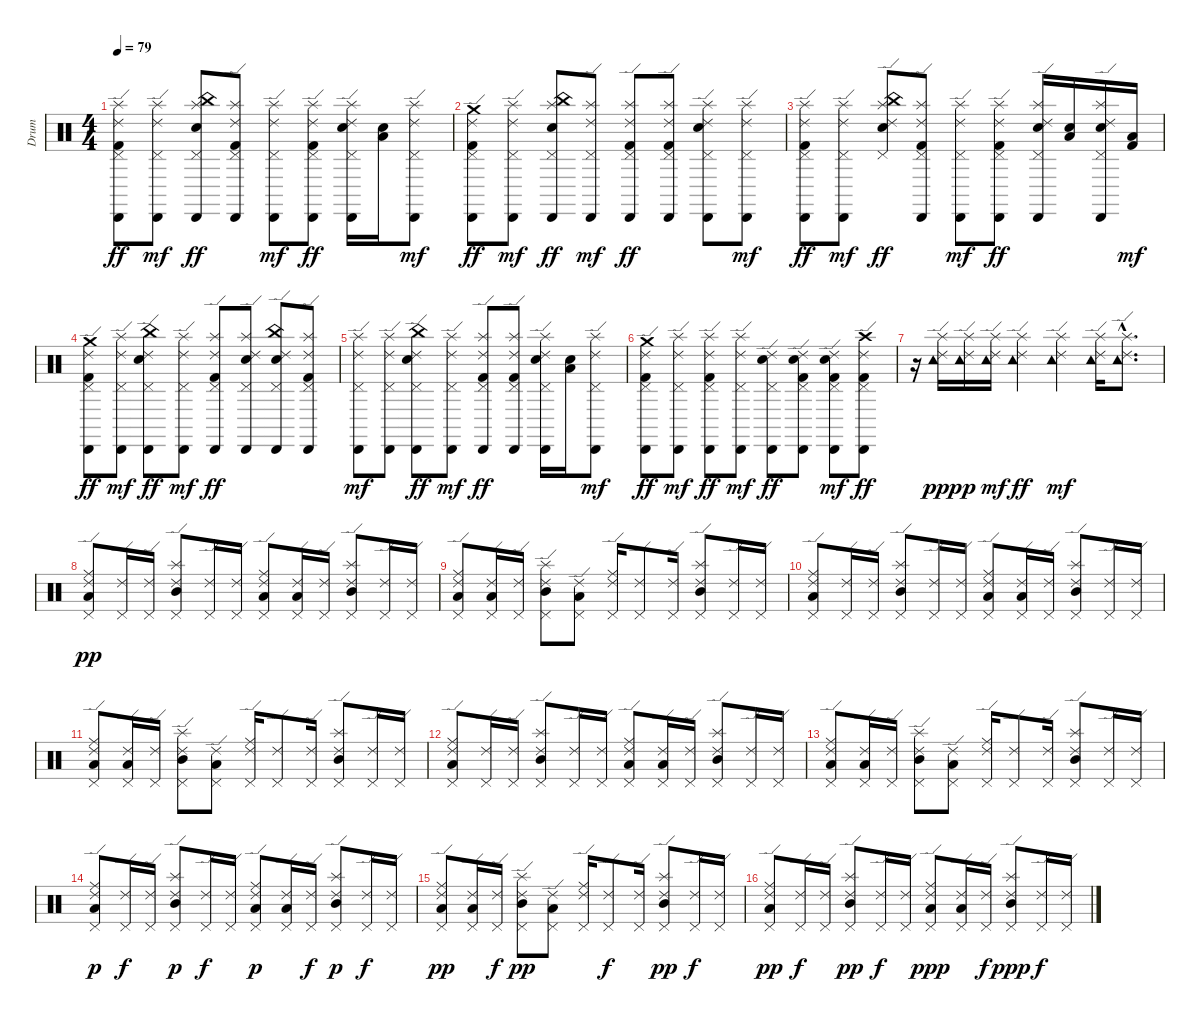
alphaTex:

\track ("Drum" "Drum") {instrument percussion}
\staff {score}
\articulation defaults
\ts (4 4)
\tempo 79
\clef neutral
\ks c
("Ride (edge) 2" "Cabasa (hit)" "Pedal Hi-Hat (hit)" "Splash (hit)" "Kick (hit) 2").8{dy ff} ("Ride (edge) 2" "Cabasa (hit)" "Pedal Hi-Hat (hit)" "Splash (hit)").8{dy mf} ("Splash (hit)" "Cabasa (hit)" "Pedal Hi-Hat (hit)" "China (hit)" "Snare (hit) 2").8{dy ff} ("Ride (edge) 2" "Cabasa (hit)" "Pedal Hi-Hat (hit)" "Splash (hit)" "Kick (hit) 2").8 ("Ride (edge) 2" "Cabasa (hit)" "Pedal Hi-Hat (hit)" "Splash (hit)").8{dy mf} ("Ride (edge) 2" "Cabasa (hit)" "Pedal Hi-Hat (hit)" "Splash (hit)" "Kick (hit) 2").8{dy ff} ("Ride (edge) 2" "Cabasa (hit)" "Pedal Hi-Hat (hit)" "Splash (hit)" "Snare (hit) 2").16 ("Low Tom (hit)" "Snare (hit) 2").16 ("Ride (edge) 2" "Cabasa (hit)" "Pedal Hi-Hat (hit)" "Splash (hit)").8{dy mf} |
("Ride (edge) 2" "Cabasa (hit)" "Pedal Hi-Hat (hit)" "Crash medium (hit)" "Kick (hit) 2").8{dy ff} ("Ride (edge) 2" "Cabasa (hit)" "Pedal Hi-Hat (hit)" "Splash (hit)").8{dy mf} ("Splash (hit)" "Cabasa (hit)" "Pedal Hi-Hat (hit)" "China (hit)" "Snare (hit) 2").8{dy ff} ("Ride (edge) 2" "Cabasa (hit)" "Pedal Hi-Hat (hit)" "Splash (hit)").8{dy mf} ("Ride (edge) 2" "Cabasa (hit)" "Pedal Hi-Hat (hit)" "Splash (hit)" "Kick (hit) 2").8{dy ff} ("Ride (edge) 2" "Cabasa (hit)" "Pedal Hi-Hat (hit)" "Splash (hit)" "Kick (hit) 2").8 ("Ride (edge) 2" "Cabasa (hit)" "Pedal Hi-Hat (hit)" "Splash (hit)" "Snare (hit) 2").8 ("Ride (edge) 2" "Cabasa (hit)" "Pedal Hi-Hat (hit)" "Splash (hit)").8{dy mf} |
("Ride (edge) 2" "Cabasa (hit)" "Pedal Hi-Hat (hit)" "Splash (hit)" "Kick (hit) 2").8{dy ff} ("Ride (edge) 2" "Cabasa (hit)" "Pedal Hi-Hat (hit)" "Splash (hit)").8{dy mf} ("Ride (edge) 2" "China (hit)" "Pedal Hi-Hat (hit)" "Splash (hit)" "Snare (hit) 2").8{dy ff} ("Ride (edge) 2" "Cabasa (hit)" "Pedal Hi-Hat (hit)" "Splash (hit)" "Kick (hit) 2").8 ("Ride (edge) 2" "Cabasa (hit)" "Pedal Hi-Hat (hit)" "Splash (hit)").8{dy mf} ("Ride (edge) 2" "Cabasa (hit)" "Pedal Hi-Hat (hit)" "Splash (hit)" "Kick (hit) 2").8{dy ff} ("Ride (edge) 2" "Cabasa (hit)" "Pedal Hi-Hat (hit)" "Splash (hit)" "Snare (hit) 2").16 ("Low Tom (hit)" "Snare (hit) 2").16 ("Ride (edge) 2" "Cabasa (hit)" "Pedal Hi-Hat (hit)" "Splash (hit)" "Snare (hit) 2").16 ("Low Floor Tom (hit)" "Kick (hit) 2").16{dy mf} |
("Ride (edge) 2" "Cabasa (hit)" "Pedal Hi-Hat (hit)" "Crash medium (hit)" "Kick (hit) 2").8{dy ff} ("Ride (edge) 2" "Cabasa (hit)" "Pedal Hi-Hat (hit)" "Splash (hit)").8{dy mf} ("Ride (edge) 2" "Cabasa (hit)" "Pedal Hi-Hat (hit)" "China (hit)" "Snare (hit) 2").8{dy ff} ("Ride (edge) 2" "Cabasa (hit)" "Pedal Hi-Hat (hit)" "Splash (hit)").8{dy mf} ("Ride (edge) 2" "Cabasa (hit)" "Pedal Hi-Hat (hit)" "Splash (hit)" "Kick (hit) 2").8{dy ff} ("Ride (edge) 2" "Cabasa (hit)" "Pedal Hi-Hat (hit)" "Splash (hit)" "Snare (hit) 2").8 ("Ride (edge) 2" "Cabasa (hit)" "Pedal Hi-Hat (hit)" "China (hit)" "Snare (hit) 2").8 ("Ride (edge) 2" "Cabasa (hit)" "Pedal Hi-Hat (hit)" "Splash (hit)" "Kick (hit) 2").8 |
("Ride (edge) 2" "Cabasa (hit)" "Pedal Hi-Hat (hit)" "Splash (hit)").8{dy mf} ("Ride (edge) 2" "Cabasa (hit)" "Pedal Hi-Hat (hit)" "Splash (hit)").8 ("Ride (edge) 2" "Cabasa (hit)" "Pedal Hi-Hat (hit)" "China (hit)" "Snare (hit) 2").8{dy ff} ("Ride (edge) 2" "Cabasa (hit)" "Pedal Hi-Hat (hit)" "Splash (hit)").8{dy mf} ("Ride (edge) 2" "Cabasa (hit)" "Pedal Hi-Hat (hit)" "Splash (hit)" "Kick (hit) 2").8{dy ff} ("Splash (hit)" "Cabasa (hit)" "Pedal Hi-Hat (hit)" "Ride (edge) 2" "Kick (hit) 2").8 ("Ride (edge) 2" "Cabasa (hit)" "Pedal Hi-Hat (hit)" "Splash (hit)" "Snare (hit) 2").16 ("Low Tom (hit)" "Snare (hit) 2").16 ("Ride (edge) 2" "Cabasa (hit)" "Pedal Hi-Hat (hit)" "Splash (hit)").8{dy mf} |
("Ride (edge) 2" "Cabasa (hit)" "Pedal Hi-Hat (hit)" "Crash medium (hit)" "Kick (hit) 2").8{dy ff} ("Ride (edge) 2" "Cabasa (hit)" "Pedal Hi-Hat (hit)" "Splash (hit)").8{dy mf} ("Ride (edge) 2" "Cabasa (hit)" "Pedal Hi-Hat (hit)" "Splash (hit)" "Kick (hit) 2").8{dy ff} ("Ride (edge) 2" "Cabasa (hit)" "Pedal Hi-Hat (hit)" "Splash (hit)").8{dy mf} ("Ride (edge) 2" "Cabasa (hit)" "Pedal Hi-Hat (hit)" "Snare (hit) 2").8{dy ff} ("Ride (edge) 2" "Cabasa (hit)" "Pedal Hi-Hat (hit)" "Snare (hit) 2" "Kick (hit) 2").8 ("Ride (edge) 2" "Cabasa (hit)" "Pedal Hi-Hat (hit)" "Snare (hit) 2" "Kick (hit) 2").8{dy mf} ("Ride (edge) 2" "Cabasa (hit)" "Pedal Hi-Hat (hit)" "Crash high (hit)" "Kick (hit) 2").8{dy ff} |
r.16 ("Ride (edge) 2" "Splash (hit)" "Tambourine (hit)").16{dy ppp} ("Ride (edge) 2" "Splash (hit)" "Tambourine (hit)").16{dy p} ("Ride (edge) 2" "Splash (hit)" "Tambourine (hit)").16{dy mf} ("Ride (edge) 2" "Splash (hit)" "Tambourine (hit)").4{dy ff} ("Ride (edge) 2" "Splash (hit)" "Tambourine (hit)").4{dy mf} ("Ride (edge) 2" "Splash (hit)" "Tambourine (hit)").16 ("Ride (edge) 2"{hac} "Splash (hit)"{hac} "Tambourine (hit)"{hac}).8{d} |
("Ride (edge) 2" "Pedal Hi-Hat (hit)" "Ride (middle)" "Low Tom (hit)").8{dy pp} ("Ride (edge) 2" "Pedal Hi-Hat (hit)").16 ("Ride (edge) 2" "Pedal Hi-Hat (hit)").16 ("Ride (edge) 2" "Pedal Hi-Hat (hit)" "Splash (hit)" "Mid Tom (hit)").8 ("Ride (edge) 2" "Pedal Hi-Hat (hit)").16 ("Ride (edge) 2" "Pedal Hi-Hat (hit)").16 ("Ride (edge) 2" "Pedal Hi-Hat (hit)" "Ride (middle)" "Low Tom (hit)").8 ("Ride (edge) 2" "Pedal Hi-Hat (hit)" "Low Tom (hit)").16 ("Ride (edge) 2" "Pedal Hi-Hat (hit)").16 ("Ride (edge) 2" "Pedal Hi-Hat (hit)" "Splash (hit)" "Mid Tom (hit)").8 ("Ride (edge) 2" "Pedal Hi-Hat (hit)").16 ("Ride (edge) 2" "Pedal Hi-Hat (hit)").16 |
("Ride (edge) 2" "Pedal Hi-Hat (hit)" "Ride (middle)" "Low Tom (hit)").8 ("Ride (edge) 2" "Pedal Hi-Hat (hit)" "Low Tom (hit)").16 ("Ride (edge) 2" "Pedal Hi-Hat (hit)").16 ("Ride (edge) 2" "Pedal Hi-Hat (hit)" "Splash (hit)" "Mid Tom (hit)").8 ("Ride (edge) 2" "Pedal Hi-Hat (hit)" "Low Tom (hit)").8 ("Ride (edge) 2" "Pedal Hi-Hat (hit)" "Ride (middle)").16 ("Ride (edge) 2" "Pedal Hi-Hat (hit)").8 ("Ride (edge) 2" "Pedal Hi-Hat (hit)").16 ("Ride (edge) 2" "Pedal Hi-Hat (hit)" "Splash (hit)" "Mid Tom (hit)").8 ("Ride (edge) 2" "Pedal Hi-Hat (hit)").16 ("Ride (edge) 2" "Pedal Hi-Hat (hit)").16 |
("Ride (edge) 2" "Pedal Hi-Hat (hit)" "Ride (middle)" "Low Tom (hit)").8 ("Ride (edge) 2" "Pedal Hi-Hat (hit)").16 ("Ride (edge) 2" "Pedal Hi-Hat (hit)").16 ("Ride (edge) 2" "Pedal Hi-Hat (hit)" "Splash (hit)" "Mid Tom (hit)").8 ("Ride (edge) 2" "Pedal Hi-Hat (hit)").16 ("Ride (edge) 2" "Pedal Hi-Hat (hit)").16 ("Ride (edge) 2" "Pedal Hi-Hat (hit)" "Ride (middle)" "Low Tom (hit)").8 ("Ride (edge) 2" "Pedal Hi-Hat (hit)" "Low Tom (hit)").16 ("Ride (edge) 2" "Pedal Hi-Hat (hit)").16 ("Ride (edge) 2" "Pedal Hi-Hat (hit)" "Splash (hit)" "Mid Tom (hit)").8 ("Ride (edge) 2" "Pedal Hi-Hat (hit)").16 ("Ride (edge) 2" "Pedal Hi-Hat (hit)").16 |
("Ride (edge) 2" "Pedal Hi-Hat (hit)" "Ride (middle)" "Low Tom (hit)").8 ("Ride (edge) 2" "Pedal Hi-Hat (hit)" "Low Tom (hit)").16 ("Ride (edge) 2" "Pedal Hi-Hat (hit)").16 ("Ride (edge) 2" "Pedal Hi-Hat (hit)" "Splash (hit)" "Mid Tom (hit)").8 ("Ride (edge) 2" "Pedal Hi-Hat (hit)" "Low Tom (hit)").8 ("Ride (edge) 2" "Pedal Hi-Hat (hit)" "Ride (middle)").16 ("Ride (edge) 2" "Pedal Hi-Hat (hit)").8 ("Ride (edge) 2" "Pedal Hi-Hat (hit)").16 ("Ride (edge) 2" "Pedal Hi-Hat (hit)" "Splash (hit)" "Mid Tom (hit)").8 ("Ride (edge) 2" "Pedal Hi-Hat (hit)").16 ("Ride (edge) 2" "Pedal Hi-Hat (hit)").16 |
("Ride (middle)" "Ride (edge) 2" "Pedal Hi-Hat (hit)" "Low Tom (hit)").8 ("Ride (edge) 2" "Pedal Hi-Hat (hit)").16 ("Ride (edge) 2" "Pedal Hi-Hat (hit)").16 ("Ride (edge) 2" "Pedal Hi-Hat (hit)" "Splash (hit)" "Mid Tom (hit)").8 ("Ride (edge) 2" "Pedal Hi-Hat (hit)").16 ("Ride (edge) 2" "Pedal Hi-Hat (hit)").16 ("Ride (edge) 2" "Pedal Hi-Hat (hit)" "Ride (middle)" "Low Tom (hit)").8 ("Ride (edge) 2" "Pedal Hi-Hat (hit)" "Low Tom (hit)").16 ("Ride (edge) 2" "Pedal Hi-Hat (hit)").16 ("Ride (edge) 2" "Pedal Hi-Hat (hit)" "Splash (hit)" "Mid Tom (hit)").8 ("Ride (edge) 2" "Pedal Hi-Hat (hit)").16 ("Ride (edge) 2" "Pedal Hi-Hat (hit)").16 |
("Ride (edge) 2" "Pedal Hi-Hat (hit)" "Ride (middle)" "Low Tom (hit)").8 ("Ride (edge) 2" "Pedal Hi-Hat (hit)" "Low Tom (hit)").16 ("Ride (edge) 2" "Pedal Hi-Hat (hit)").16 ("Ride (edge) 2" "Pedal Hi-Hat (hit)" "Splash (hit)" "Mid Tom (hit)").8 ("Ride (edge) 2" "Pedal Hi-Hat (hit)" "Low Tom (hit)").8 ("Ride (edge) 2" "Pedal Hi-Hat (hit)" "Ride (middle)").16 ("Ride (edge) 2" "Pedal Hi-Hat (hit)").8 ("Ride (edge) 2" "Pedal Hi-Hat (hit)").16 ("Ride (edge) 2" "Pedal Hi-Hat (hit)" "Splash (hit)" "Mid Tom (hit)").8 ("Ride (edge) 2" "Pedal Hi-Hat (hit)").16 ("Ride (edge) 2" "Pedal Hi-Hat (hit)").16 |
("Ride (edge) 2" "Pedal Hi-Hat (hit)" "Ride (middle)" "Low Tom (hit)").8{dy p} ("Ride (edge) 2" "Pedal Hi-Hat (hit)").16{dy f} ("Ride (edge) 2" "Pedal Hi-Hat (hit)").16 ("Ride (edge) 2" "Pedal Hi-Hat (hit)" "Splash (hit)" "Mid Tom (hit)").8{dy p} ("Ride (edge) 2" "Pedal Hi-Hat (hit)").16{dy f} ("Ride (edge) 2" "Pedal Hi-Hat (hit)").16 ("Ride (edge) 2" "Pedal Hi-Hat (hit)" "Ride (middle)" "Low Tom (hit)").8{dy p} ("Ride (edge) 2" "Pedal Hi-Hat (hit)" "Low Tom (hit)").16 ("Ride (edge) 2" "Pedal Hi-Hat (hit)").16{dy f} ("Ride (edge) 2" "Pedal Hi-Hat (hit)" "Splash (hit)" "Mid Tom (hit)").8{dy p} ("Ride (edge) 2" "Pedal Hi-Hat (hit)").16{dy f} ("Ride (edge) 2" "Pedal Hi-Hat (hit)").16 |
("Ride (edge) 2" "Pedal Hi-Hat (hit)" "Ride (middle)" "Low Tom (hit)").8{dy pp} ("Ride (edge) 2" "Pedal Hi-Hat (hit)" "Low Tom (hit)").16 ("Ride (edge) 2" "Pedal Hi-Hat (hit)").16{dy f} ("Ride (edge) 2" "Pedal Hi-Hat (hit)" "Splash (hit)" "Mid Tom (hit)").8{dy pp} ("Ride (edge) 2" "Pedal Hi-Hat (hit)" "Low Tom (hit)").8 ("Ride (edge) 2" "Pedal Hi-Hat (hit)" "Ride (middle)").16 ("Ride (edge) 2" "Pedal Hi-Hat (hit)").8{dy f} ("Ride (edge) 2" "Pedal Hi-Hat (hit)").16 ("Ride (edge) 2" "Pedal Hi-Hat (hit)" "Splash (hit)" "Mid Tom (hit)").8{dy pp} ("Ride (edge) 2" "Pedal Hi-Hat (hit)").16{dy f} ("Ride (edge) 2" "Pedal Hi-Hat (hit)").16 |
("Ride (edge) 2" "Pedal Hi-Hat (hit)" "Ride (middle)" "Low Tom (hit)").8{dy pp} ("Ride (edge) 2" "Pedal Hi-Hat (hit)").16{dy f} ("Ride (edge) 2" "Pedal Hi-Hat (hit)").16 ("Ride (edge) 2" "Pedal Hi-Hat (hit)" "Splash (hit)" "Mid Tom (hit)").8{dy pp} ("Ride (edge) 2" "Pedal Hi-Hat (hit)").16{dy f} ("Ride (edge) 2" "Pedal Hi-Hat (hit)").16 ("Ride (edge) 2" "Pedal Hi-Hat (hit)" "Ride (middle)" "Low Tom (hit)").8{dy ppp} ("Ride (edge) 2" "Pedal Hi-Hat (hit)" "Low Tom (hit)").16 ("Ride (edge) 2" "Pedal Hi-Hat (hit)").16{dy f} ("Ride (edge) 2" "Pedal Hi-Hat (hit)" "Splash (hit)" "Mid Tom (hit)").8{dy ppp} ("Ride (edge) 2" "Pedal Hi-Hat (hit)").16{dy f} ("Ride (edge) 2" "Pedal Hi-Hat (hit)").16
